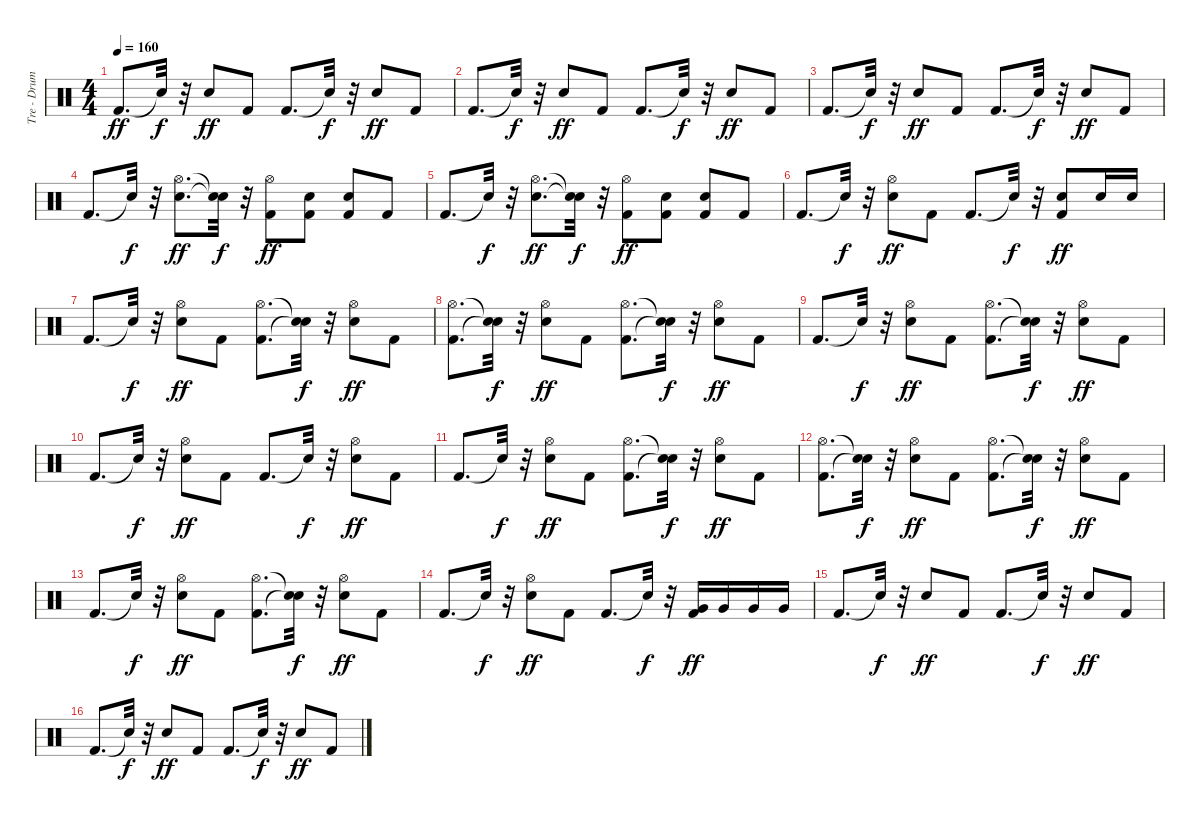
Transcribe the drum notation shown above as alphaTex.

\track ("Tre - Drums-2" "Tre - Drum") {instrument percussion}
\staff {score}
\articulation defaults
\ts (4 4)
\tempo 160
\clef neutral
\ks c "Kick (hit) 2".8{d dy ff} "Snare (hit)"{t}.32{dy f}
r.32 "Electric Snare (hit)".8{dy ff} "Kick (hit) 2".8 "Kick (hit) 2".8{d} "Snare (hit)"{t}.32{dy f} r.32 "Electric Snare (hit)".8{dy ff} "Kick (hit) 2".8 |
"Kick (hit) 2".8{d} "Snare (hit)"{t}.32{dy f} r.32 "Electric Snare (hit)".8{dy ff} "Kick (hit) 2".8 "Kick (hit) 2".8{d} "Snare (hit)"{t}.32{dy f} r.32 "Electric Snare (hit)".8{dy ff} "Kick (hit) 2".8 |
"Kick (hit) 2".8{d} "Snare (hit)"{t}.32{dy f} r.32 "Electric Snare (hit)".8{dy ff} "Kick (hit) 2".8 "Kick (hit) 2".8{d} "Snare (hit)"{t}.32{dy f} r.32 "Electric Snare (hit)".8{dy ff} "Kick (hit) 2".8 |
"Kick (hit) 2".8{d} "Snare (hit)"{t}.32{dy f} r.32 ("Electric Snare (hit)" "Hi-Hat (open)").8{d dy ff} ("Snare (hit)"{t} "Snare (hit)"{t}).32{dy f} r.32 ("Kick (hit) 2" "Hi-Hat (open)").8{dy ff} ("Kick (hit) 2" "Electric Snare (hit)").8 ("Kick (hit) 2" "Electric Snare (hit)").8 "Kick (hit) 2".8 |
"Kick (hit) 2".8{d} "Snare (hit)"{t}.32{dy f} r.32 ("Electric Snare (hit)" "Hi-Hat (open)").8{d dy ff} ("Snare (hit)"{t} "Snare (hit)"{t}).32{dy f} r.32 ("Kick (hit) 2" "Hi-Hat (open)").8{dy ff} ("Kick (hit) 2" "Electric Snare (hit)").8 ("Kick (hit) 2" "Electric Snare (hit)").8 "Kick (hit) 2".8 |
"Kick (hit) 2".8{d} "Snare (hit)"{t}.32{dy f} r.32 ("Electric Snare (hit)" "Hi-Hat (open)").8{dy ff} "Kick (hit) 2".8 "Kick (hit) 2".8{d} "Snare (hit)"{t}.32{dy f} r.32 ("Kick (hit) 2" "Electric Snare (hit)").8{dy ff} "Electric Snare (hit)".16 "Electric Snare (hit)".16 |
"Kick (hit) 2".8{d} "Snare (hit)"{t}.32{dy f} r.32 ("Electric Snare (hit)" "Hi-Hat (open)").8{dy ff} "Kick (hit) 2".8 ("Kick (hit) 2" "Hi-Hat (open)").8{d} ("Snare (hit)"{t} "Snare (hit)"{t}).32{dy f} r.32 ("Electric Snare (hit)" "Hi-Hat (open)").8{dy ff} "Kick (hit) 2".8 |
("Kick (hit) 2" "Hi-Hat (open)").8{d} ("Snare (hit)"{t} "Snare (hit)"{t}).32{dy f} r.32 ("Electric Snare (hit)" "Hi-Hat (open)").8{dy ff} "Kick (hit) 2".8 ("Kick (hit) 2" "Hi-Hat (open)").8{d} ("Snare (hit)"{t} "Snare (hit)"{t}).32{dy f} r.32 ("Electric Snare (hit)" "Hi-Hat (open)").8{dy ff} "Kick (hit) 2".8 |
"Kick (hit) 2".8{d} "Snare (hit)"{t}.32{dy f} r.32 ("Electric Snare (hit)" "Hi-Hat (open)").8{dy ff} "Kick (hit) 2".8 ("Kick (hit) 2" "Hi-Hat (open)").8{d} ("Snare (hit)"{t} "Snare (hit)"{t}).32{dy f} r.32 ("Electric Snare (hit)" "Hi-Hat (open)").8{dy ff} "Kick (hit) 2".8 |
"Kick (hit) 2".8{d} "Snare (hit)"{t}.32{dy f} r.32 ("Electric Snare (hit)" "Hi-Hat (open)").8{dy ff} "Kick (hit) 2".8 "Kick (hit) 2".8{d} "Snare (hit)"{t}.32{dy f} r.32 ("Electric Snare (hit)" "Hi-Hat (open)").8{dy ff} "Kick (hit) 2".8 |
"Kick (hit) 2".8{d} "Snare (hit)"{t}.32{dy f} r.32 ("Electric Snare (hit)" "Hi-Hat (open)").8{dy ff} "Kick (hit) 2".8 ("Kick (hit) 2" "Hi-Hat (open)").8{d} ("Snare (hit)"{t} "Snare (hit)"{t}).32{dy f} r.32 ("Electric Snare (hit)" "Hi-Hat (open)").8{dy ff} "Kick (hit) 2".8 |
("Kick (hit) 2" "Hi-Hat (open)").8{d} ("Snare (hit)"{t} "Snare (hit)"{t}).32{dy f} r.32 ("Electric Snare (hit)" "Hi-Hat (open)").8{dy ff} "Kick (hit) 2".8 ("Kick (hit) 2" "Hi-Hat (open)").8{d} ("Snare (hit)"{t} "Snare (hit)"{t}).32{dy f} r.32 ("Electric Snare (hit)" "Hi-Hat (open)").8{dy ff} "Kick (hit) 2".8 |
"Kick (hit) 2".8{d} "Snare (hit)"{t}.32{dy f} r.32 ("Electric Snare (hit)" "Hi-Hat (open)").8{dy ff} "Kick (hit) 2".8 ("Kick (hit) 2" "Hi-Hat (open)").8{d} ("Snare (hit)"{t} "Snare (hit)"{t}).32{dy f} r.32 ("Electric Snare (hit)" "Hi-Hat (open)").8{dy ff} "Kick (hit) 2".8 |
"Kick (hit) 2".8{d} "Snare (hit)"{t}.32{dy f} r.32 ("Electric Snare (hit)" "Hi-Hat (open)").8{dy ff} "Kick (hit) 2".8 "Kick (hit) 2".8{d} "Snare (hit)"{t}.32{dy f} r.32 ("Kick (hit) 2" "Very Low Tom (hit)").16{dy ff} "Very Low Tom (hit)".16 "Very Low Tom (hit)".16 "Very Low Tom (hit)".16 |
"Kick (hit) 2".8{d} "Snare (hit)"{t}.32{dy f} r.32 "Electric Snare (hit)".8{dy ff} "Kick (hit) 2".8 "Kick (hit) 2".8{d} "Snare (hit)"{t}.32{dy f} r.32 "Electric Snare (hit)".8{dy ff} "Kick (hit) 2".8 |
"Kick (hit) 2".8{d} "Snare (hit)"{t}.32{dy f} r.32 "Electric Snare (hit)".8{dy ff} "Kick (hit) 2".8 "Kick (hit) 2".8{d} "Snare (hit)"{t}.32{dy f} r.32 "Electric Snare (hit)".8{dy ff} "Kick (hit) 2".8
